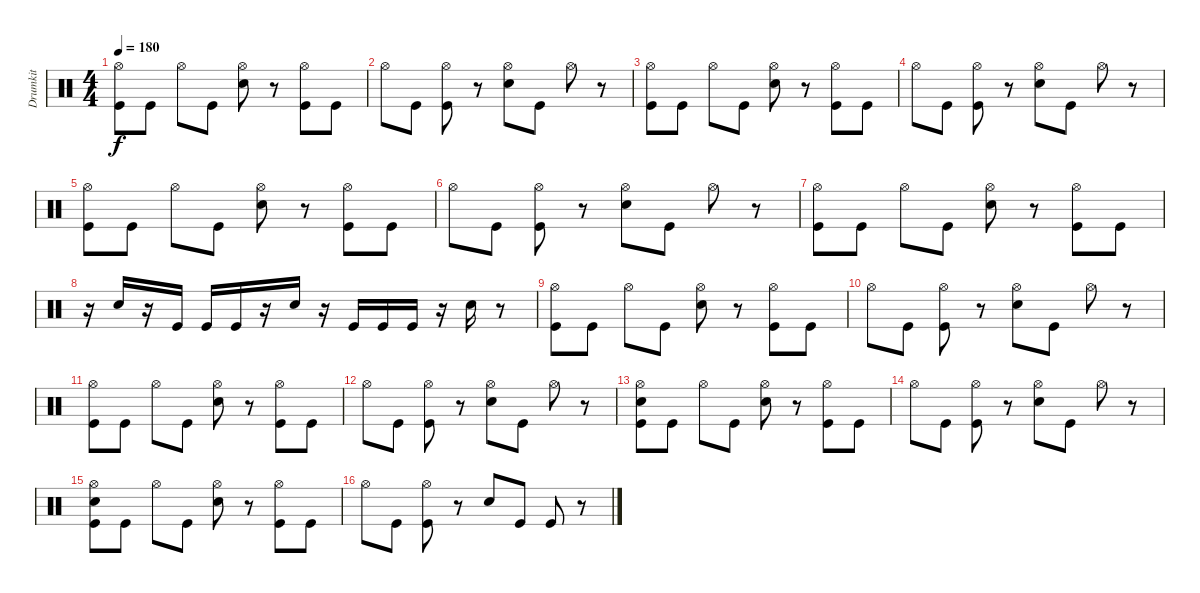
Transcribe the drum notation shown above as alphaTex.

\track ("Drumkit" "Drumkit") {instrument percussion}
\staff {score}
\articulation defaults
\ts (4 4)
\tempo 180
\clef neutral
\ks c
("Hi-Hat (open)" "Kick (hit)").8{dy f} "Kick (hit)".8 "Hi-Hat (open)".8 "Kick (hit)".8 ("Hi-Hat (open)" "Snare (hit) 2").8 r.8 ("Hi-Hat (open)" "Kick (hit)").8 "Kick (hit)".8 |
"Hi-Hat (open)".8 "Kick (hit)".8 ("Hi-Hat (open)" "Kick (hit)").8 r.8 ("Hi-Hat (open)" "Snare (hit) 2").8 "Kick (hit)".8 "Hi-Hat (open)".8 r.8 |
("Hi-Hat (open)" "Kick (hit)").8 "Kick (hit)".8 "Hi-Hat (open)".8 "Kick (hit)".8 ("Hi-Hat (open)" "Snare (hit) 2").8 r.8 ("Hi-Hat (open)" "Kick (hit)").8 "Kick (hit)".8 |
"Hi-Hat (open)".8 "Kick (hit)".8 ("Hi-Hat (open)" "Kick (hit)").8 r.8 ("Hi-Hat (open)" "Snare (hit) 2").8 "Kick (hit)".8 "Hi-Hat (open)".8 r.8 |
("Hi-Hat (open)" "Kick (hit)").8 "Kick (hit)".8 "Hi-Hat (open)".8 "Kick (hit)".8 ("Hi-Hat (open)" "Snare (hit) 2").8 r.8 ("Hi-Hat (open)" "Kick (hit)").8 "Kick (hit)".8 |
"Hi-Hat (open)".8 "Kick (hit)".8 ("Hi-Hat (open)" "Kick (hit)").8 r.8 ("Hi-Hat (open)" "Snare (hit) 2").8 "Kick (hit)".8 "Hi-Hat (open)".8 r.8 |
("Hi-Hat (open)" "Kick (hit)").8 "Kick (hit)".8 "Hi-Hat (open)".8 "Kick (hit)".8 ("Hi-Hat (open)" "Snare (hit) 2").8 r.8 ("Hi-Hat (open)" "Kick (hit)").8 "Kick (hit)".8 |
r.16 "Snare (hit) 2".16 r.16 "Kick (hit)".16 "Kick (hit)".16 "Kick (hit)".16 r.16 "Snare (hit) 2".16 r.16 "Kick (hit)".16 "Kick (hit)".16 "Kick (hit)".16 r.16 "Snare (hit) 2".16 r.8 |
("Hi-Hat (open)" "Kick (hit)").8 "Kick (hit)".8 "Hi-Hat (open)".8 "Kick (hit)".8 ("Hi-Hat (open)" "Snare (hit) 2").8 r.8 ("Hi-Hat (open)" "Kick (hit)").8 "Kick (hit)".8 |
"Hi-Hat (open)".8 "Kick (hit)".8 ("Hi-Hat (open)" "Kick (hit)").8 r.8 ("Hi-Hat (open)" "Snare (hit) 2").8 "Kick (hit)".8 "Hi-Hat (open)".8 r.8 |
("Hi-Hat (open)" "Kick (hit)").8 "Kick (hit)".8 "Hi-Hat (open)".8 "Kick (hit)".8 ("Hi-Hat (open)" "Snare (hit) 2").8 r.8 ("Hi-Hat (open)" "Kick (hit)").8 "Kick (hit)".8 |
"Hi-Hat (open)".8 "Kick (hit)".8 ("Hi-Hat (open)" "Kick (hit)").8 r.8 ("Hi-Hat (open)" "Snare (hit) 2").8 "Kick (hit)".8 "Hi-Hat (open)".8 r.8 |
("Hi-Hat (open)" "Snare (hit) 2" "Kick (hit)").8 "Kick (hit)".8 "Hi-Hat (open)".8 "Kick (hit)".8 ("Hi-Hat (open)" "Snare (hit) 2").8 r.8 ("Hi-Hat (open)" "Kick (hit)").8 "Kick (hit)".8 |
"Hi-Hat (open)".8 "Kick (hit)".8 ("Hi-Hat (open)" "Kick (hit)").8 r.8 ("Hi-Hat (open)" "Snare (hit) 2").8 "Kick (hit)".8 "Hi-Hat (open)".8 r.8 |
("Hi-Hat (open)" "Snare (hit) 2" "Kick (hit)").8 "Kick (hit)".8 "Hi-Hat (open)".8 "Kick (hit)".8 ("Hi-Hat (open)" "Snare (hit) 2").8 r.8 ("Hi-Hat (open)" "Kick (hit)").8 "Kick (hit)".8 |
"Hi-Hat (open)".8 "Kick (hit)".8 ("Hi-Hat (open)" "Kick (hit)").8 r.8 "Snare (hit) 2".8 "Kick (hit)".8 "Kick (hit)".8 r.8
